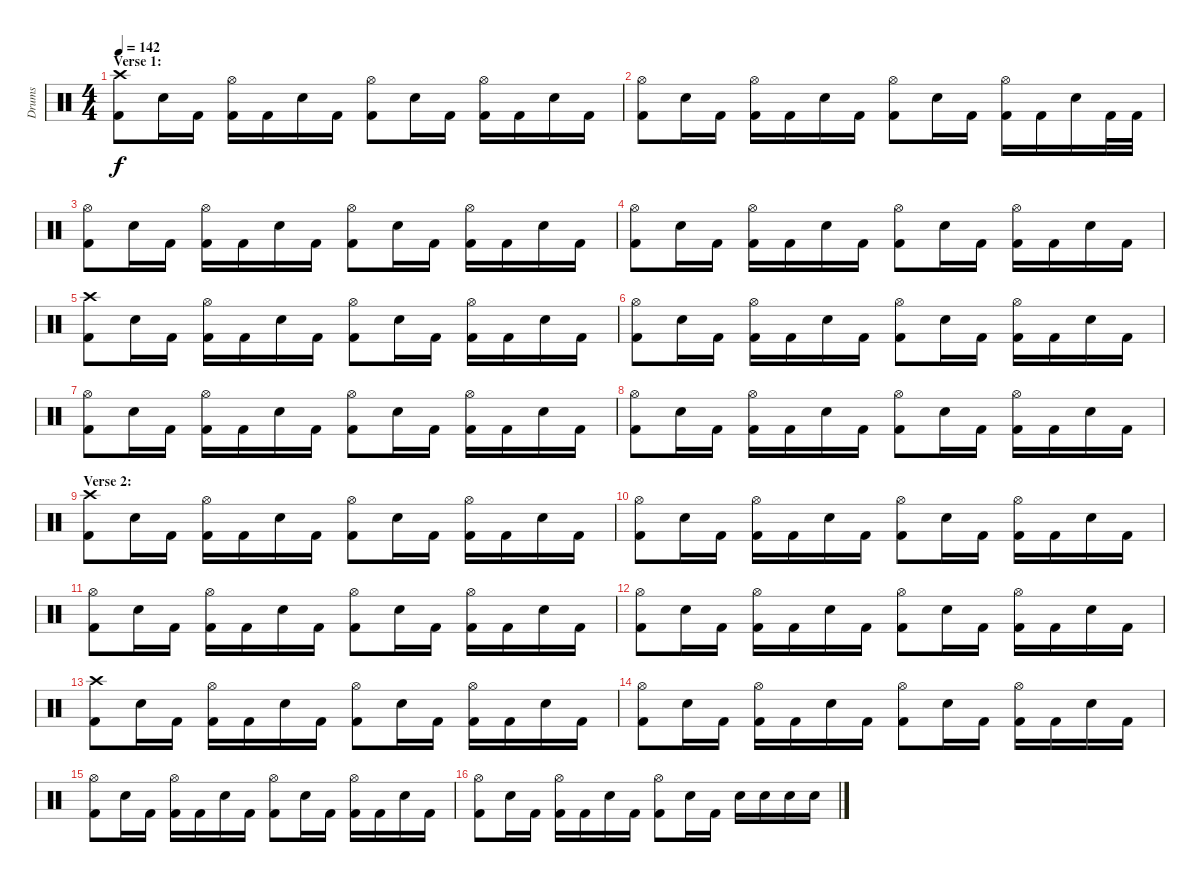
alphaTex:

\track ("Drums" "Drums") {instrument percussion}
\staff {score}
\articulation defaults
\ts (4 4)
\section ("" "Verse 1:")
\tempo 142
\clef neutral
\ks c
("Crash high (hit)" "Kick (hit) 2").8{dy f} "Electric Snare (hit)".16 "Kick (hit) 2".16 ("Hi-Hat (open)" "Kick (hit) 2").16 "Kick (hit) 2".16 "Electric Snare (hit)".16 "Kick (hit) 2".16 ("Hi-Hat (open)" "Kick (hit) 2").8 "Electric Snare (hit)".16 "Kick (hit) 2".16 ("Hi-Hat (open)" "Kick (hit) 2").16 "Kick (hit) 2".16 "Electric Snare (hit)".16 "Kick (hit) 2".16 |
("Hi-Hat (open)" "Kick (hit) 2").8 "Electric Snare (hit)".16 "Kick (hit) 2".16 ("Hi-Hat (open)" "Kick (hit) 2").16 "Kick (hit) 2".16 "Electric Snare (hit)".16 "Kick (hit) 2".16 ("Hi-Hat (open)" "Kick (hit) 2").8 "Electric Snare (hit)".16 "Kick (hit) 2".16 ("Hi-Hat (open)" "Kick (hit) 2").16 "Kick (hit) 2".16 "Electric Snare (hit)".16 "Kick (hit) 2".32 "Kick (hit) 2".32 |
("Hi-Hat (open)" "Kick (hit) 2").8 "Electric Snare (hit)".16 "Kick (hit) 2".16 ("Hi-Hat (open)" "Kick (hit) 2").16 "Kick (hit) 2".16 "Electric Snare (hit)".16 "Kick (hit) 2".16 ("Hi-Hat (open)" "Kick (hit) 2").8 "Electric Snare (hit)".16 "Kick (hit) 2".16 ("Hi-Hat (open)" "Kick (hit) 2").16 "Kick (hit) 2".16 "Electric Snare (hit)".16 "Kick (hit) 2".16 |
("Hi-Hat (open)" "Kick (hit) 2").8 "Electric Snare (hit)".16 "Kick (hit) 2".16 ("Hi-Hat (open)" "Kick (hit) 2").16 "Kick (hit) 2".16 "Electric Snare (hit)".16 "Kick (hit) 2".16 ("Hi-Hat (open)" "Kick (hit) 2").8 "Electric Snare (hit)".16 "Kick (hit) 2".16 ("Hi-Hat (open)" "Kick (hit) 2").16 "Kick (hit) 2".16 "Electric Snare (hit)".16 "Kick (hit) 2".16 |
("Crash high (hit)" "Kick (hit) 2").8 "Electric Snare (hit)".16 "Kick (hit) 2".16 ("Hi-Hat (open)" "Kick (hit) 2").16 "Kick (hit) 2".16 "Electric Snare (hit)".16 "Kick (hit) 2".16 ("Hi-Hat (open)" "Kick (hit) 2").8 "Electric Snare (hit)".16 "Kick (hit) 2".16 ("Hi-Hat (open)" "Kick (hit) 2").16 "Kick (hit) 2".16 "Electric Snare (hit)".16 "Kick (hit) 2".16 |
("Hi-Hat (open)" "Kick (hit) 2").8 "Electric Snare (hit)".16 "Kick (hit) 2".16 ("Hi-Hat (open)" "Kick (hit) 2").16 "Kick (hit) 2".16 "Electric Snare (hit)".16 "Kick (hit) 2".16 ("Hi-Hat (open)" "Kick (hit) 2").8 "Electric Snare (hit)".16 "Kick (hit) 2".16 ("Hi-Hat (open)" "Kick (hit) 2").16 "Kick (hit) 2".16 "Electric Snare (hit)".16 "Kick (hit) 2".16 |
("Hi-Hat (open)" "Kick (hit) 2").8 "Electric Snare (hit)".16 "Kick (hit) 2".16 ("Hi-Hat (open)" "Kick (hit) 2").16 "Kick (hit) 2".16 "Electric Snare (hit)".16 "Kick (hit) 2".16 ("Hi-Hat (open)" "Kick (hit) 2").8 "Electric Snare (hit)".16 "Kick (hit) 2".16 ("Hi-Hat (open)" "Kick (hit) 2").16 "Kick (hit) 2".16 "Electric Snare (hit)".16 "Kick (hit) 2".16 |
("Hi-Hat (open)" "Kick (hit) 2").8 "Electric Snare (hit)".16 "Kick (hit) 2".16 ("Hi-Hat (open)" "Kick (hit) 2").16 "Kick (hit) 2".16 "Electric Snare (hit)".16 "Kick (hit) 2".16 ("Hi-Hat (open)" "Kick (hit) 2").8 "Electric Snare (hit)".16 "Kick (hit) 2".16 ("Hi-Hat (open)" "Kick (hit) 2").16 "Kick (hit) 2".16 "Electric Snare (hit)".16 "Kick (hit) 2".16 |
\section ("" "Verse 2:")
("Crash high (hit)" "Kick (hit) 2").8 "Electric Snare (hit)".16 "Kick (hit) 2".16 ("Hi-Hat (open)" "Kick (hit) 2").16 "Kick (hit) 2".16 "Electric Snare (hit)".16 "Kick (hit) 2".16 ("Hi-Hat (open)" "Kick (hit) 2").8 "Electric Snare (hit)".16 "Kick (hit) 2".16 ("Hi-Hat (open)" "Kick (hit) 2").16 "Kick (hit) 2".16 "Electric Snare (hit)".16 "Kick (hit) 2".16 |
("Hi-Hat (open)" "Kick (hit) 2").8 "Electric Snare (hit)".16 "Kick (hit) 2".16 ("Hi-Hat (open)" "Kick (hit) 2").16 "Kick (hit) 2".16 "Electric Snare (hit)".16 "Kick (hit) 2".16 ("Hi-Hat (open)" "Kick (hit) 2").8 "Electric Snare (hit)".16 "Kick (hit) 2".16 ("Hi-Hat (open)" "Kick (hit) 2").16 "Kick (hit) 2".16 "Electric Snare (hit)".16 "Kick (hit) 2".16 |
("Hi-Hat (open)" "Kick (hit) 2").8 "Electric Snare (hit)".16 "Kick (hit) 2".16 ("Hi-Hat (open)" "Kick (hit) 2").16 "Kick (hit) 2".16 "Electric Snare (hit)".16 "Kick (hit) 2".16 ("Hi-Hat (open)" "Kick (hit) 2").8 "Electric Snare (hit)".16 "Kick (hit) 2".16 ("Hi-Hat (open)" "Kick (hit) 2").16 "Kick (hit) 2".16 "Electric Snare (hit)".16 "Kick (hit) 2".16 |
("Hi-Hat (open)" "Kick (hit) 2").8 "Electric Snare (hit)".16 "Kick (hit) 2".16 ("Hi-Hat (open)" "Kick (hit) 2").16 "Kick (hit) 2".16 "Electric Snare (hit)".16 "Kick (hit) 2".16 ("Hi-Hat (open)" "Kick (hit) 2").8 "Electric Snare (hit)".16 "Kick (hit) 2".16 ("Hi-Hat (open)" "Kick (hit) 2").16 "Kick (hit) 2".16 "Electric Snare (hit)".16 "Kick (hit) 2".16 |
("Crash high (hit)" "Kick (hit) 2").8 "Electric Snare (hit)".16 "Kick (hit) 2".16 ("Hi-Hat (open)" "Kick (hit) 2").16 "Kick (hit) 2".16 "Electric Snare (hit)".16 "Kick (hit) 2".16 ("Hi-Hat (open)" "Kick (hit) 2").8 "Electric Snare (hit)".16 "Kick (hit) 2".16 ("Hi-Hat (open)" "Kick (hit) 2").16 "Kick (hit) 2".16 "Electric Snare (hit)".16 "Kick (hit) 2".16 |
("Hi-Hat (open)" "Kick (hit) 2").8 "Electric Snare (hit)".16 "Kick (hit) 2".16 ("Hi-Hat (open)" "Kick (hit) 2").16 "Kick (hit) 2".16 "Electric Snare (hit)".16 "Kick (hit) 2".16 ("Hi-Hat (open)" "Kick (hit) 2").8 "Electric Snare (hit)".16 "Kick (hit) 2".16 ("Hi-Hat (open)" "Kick (hit) 2").16 "Kick (hit) 2".16 "Electric Snare (hit)".16 "Kick (hit) 2".16 |
("Hi-Hat (open)" "Kick (hit) 2").8 "Electric Snare (hit)".16 "Kick (hit) 2".16 ("Hi-Hat (open)" "Kick (hit) 2").16 "Kick (hit) 2".16 "Electric Snare (hit)".16 "Kick (hit) 2".16 ("Hi-Hat (open)" "Kick (hit) 2").8 "Electric Snare (hit)".16 "Kick (hit) 2".16 ("Hi-Hat (open)" "Kick (hit) 2").16 "Kick (hit) 2".16 "Electric Snare (hit)".16 "Kick (hit) 2".16 |
("Hi-Hat (open)" "Kick (hit) 2").8 "Electric Snare (hit)".16 "Kick (hit) 2".16 ("Hi-Hat (open)" "Kick (hit) 2").16 "Kick (hit) 2".16 "Electric Snare (hit)".16 "Kick (hit) 2".16 ("Hi-Hat (open)" "Kick (hit) 2").8 "Electric Snare (hit)".16 "Kick (hit) 2".16 "Electric Snare (hit)".16 "Electric Snare (hit)".16 "Electric Snare (hit)".16 "Electric Snare (hit)".16
